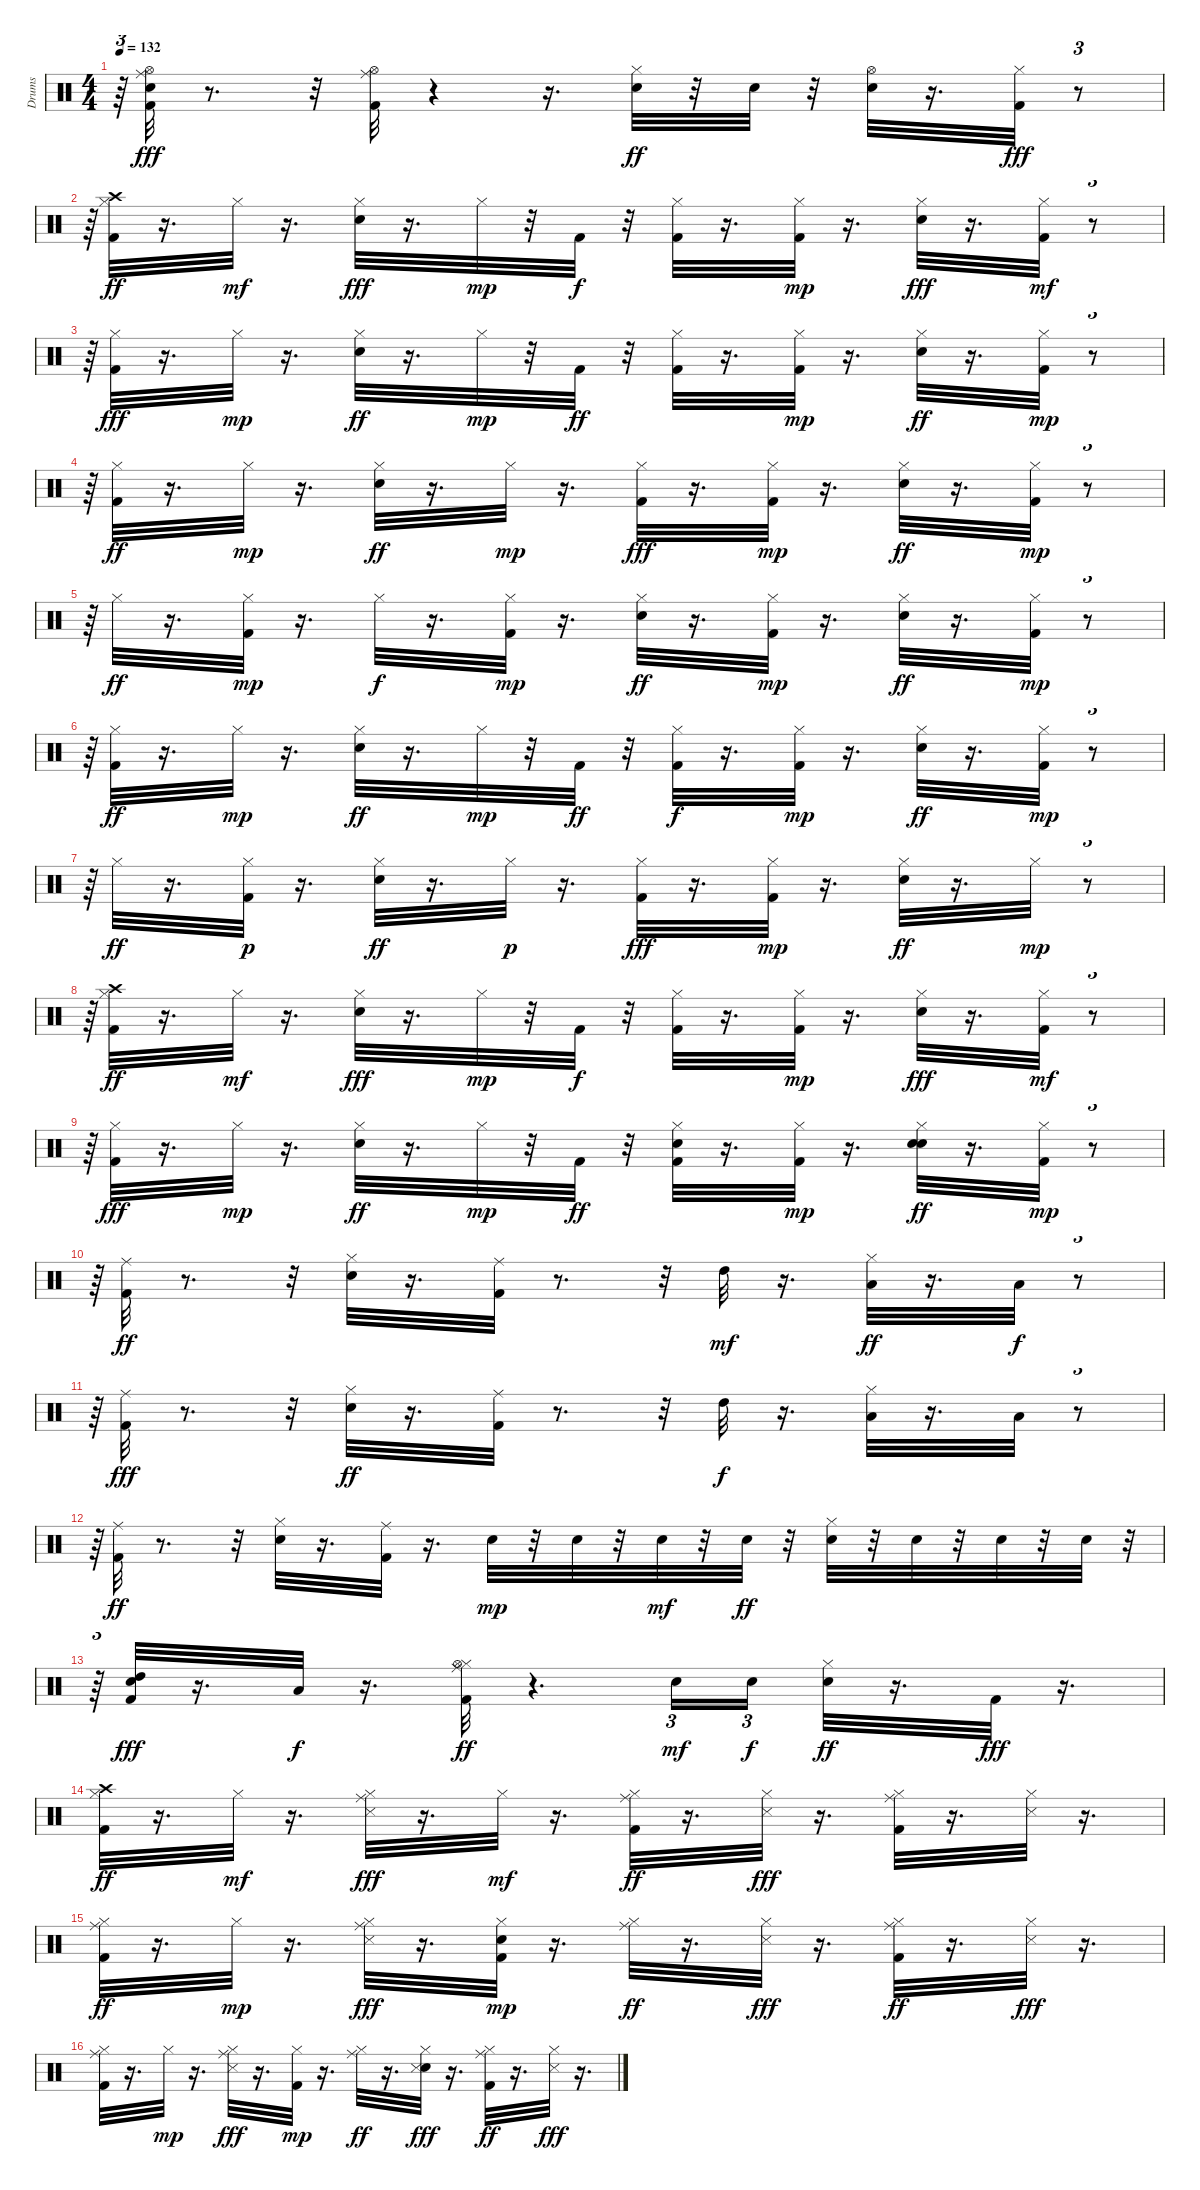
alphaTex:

\track ("Drums" "Drums") {instrument percussion}
\staff {score}
\articulation defaults
\ts (4 4)
\tempo 132
\clef neutral
\ks c
r.64{tu (3 2) dy ff} ("Kick (hit) 2" "Snare (hit) 2" "Ride (middle)" "Hi-Hat (open)").32{dy fff} r.8{d} r.32 ("Kick (hit) 2" "Ride (middle)" "Hi-Hat (open)").32 r.4 r.16{d} ("Snare (hit) 2" "Hi-Hat (closed)").32{dy ff} r.32 "Snare (hit) 2".32 r.32 ("Snare (hit) 2" "Hi-Hat (open)").32 r.16{d} ("Kick (hit) 2" "Hi-Hat (closed)").32{dy fff} r.8{tu (3 2)} |
r.64{tu (3 2)} ("Kick (hit) 2" "Hi-Hat (closed)" "Crash high (hit)").32{dy ff} r.16{d} "Hi-Hat (closed)".32{dy mf} r.16{d} ("Snare (hit) 2" "Hi-Hat (closed)").32{dy fff} r.16{d} "Hi-Hat (closed)".32{dy mp} r.32 "Kick (hit) 2".32{dy f} r.32 ("Kick (hit) 2" "Hi-Hat (closed)").32 r.16{d} ("Kick (hit) 2" "Hi-Hat (closed)").32{dy mp} r.16{d} ("Snare (hit) 2" "Hi-Hat (closed)").32{dy fff} r.16{d} ("Kick (hit) 2" "Hi-Hat (closed)").32{dy mf} r.8{tu (3 2)} |
r.64{tu (3 2)} ("Kick (hit) 2" "Hi-Hat (closed)").32{dy fff} r.16{d} "Hi-Hat (closed)".32{dy mp} r.16{d} ("Snare (hit) 2" "Hi-Hat (closed)").32{dy ff} r.16{d} "Hi-Hat (closed)".32{dy mp} r.32 "Kick (hit) 2".32{dy ff} r.32 ("Kick (hit) 2" "Hi-Hat (closed)").32 r.16{d} ("Kick (hit) 2" "Hi-Hat (closed)").32{dy mp} r.16{d} ("Snare (hit) 2" "Hi-Hat (closed)").32{dy ff} r.16{d} ("Kick (hit) 2" "Hi-Hat (closed)").32{dy mp} r.8{tu (3 2)} |
r.64{tu (3 2)} ("Kick (hit) 2" "Hi-Hat (closed)").32{dy ff} r.16{d} "Hi-Hat (closed)".32{dy mp} r.16{d} ("Snare (hit) 2" "Hi-Hat (closed)").32{dy ff} r.16{d} "Hi-Hat (closed)".32{dy mp} r.16{d} ("Kick (hit) 2" "Hi-Hat (closed)").32{dy fff} r.16{d} ("Kick (hit) 2" "Hi-Hat (closed)").32{dy mp} r.16{d} ("Snare (hit) 2" "Hi-Hat (closed)").32{dy ff} r.16{d} ("Kick (hit) 2" "Hi-Hat (closed)").32{dy mp} r.8{tu (3 2)} |
r.64{tu (3 2)} "Hi-Hat (closed)".32{dy ff} r.16{d} ("Kick (hit) 2" "Hi-Hat (closed)").32{dy mp} r.16{d} "Hi-Hat (closed)".32{dy f} r.16{d} ("Kick (hit) 2" "Hi-Hat (closed)").32{dy mp} r.16{d} ("Snare (hit) 2" "Hi-Hat (closed)").32{dy ff} r.16{d} ("Kick (hit) 2" "Hi-Hat (closed)").32{dy mp} r.16{d} ("Snare (hit) 2" "Hi-Hat (closed)").32{dy ff} r.16{d} ("Kick (hit) 2" "Hi-Hat (closed)").32{dy mp} r.8{tu (3 2)} |
r.64{tu (3 2)} ("Kick (hit) 2" "Hi-Hat (closed)").32{dy ff} r.16{d} "Hi-Hat (closed)".32{dy mp} r.16{d} ("Snare (hit) 2" "Hi-Hat (closed)").32{dy ff} r.16{d} "Hi-Hat (closed)".32{dy mp} r.32 "Kick (hit) 2".32{dy ff} r.32 ("Kick (hit) 2" "Hi-Hat (closed)").32{dy f} r.16{d} ("Kick (hit) 2" "Hi-Hat (closed)").32{dy mp} r.16{d} ("Snare (hit) 2" "Hi-Hat (closed)").32{dy ff} r.16{d} ("Kick (hit) 2" "Hi-Hat (closed)").32{dy mp} r.8{tu (3 2)} |
r.64{tu (3 2)} "Hi-Hat (closed)".32{dy ff} r.16{d} ("Kick (hit) 2" "Hi-Hat (closed)").32{dy p} r.16{d} ("Snare (hit) 2" "Hi-Hat (closed)").32{dy ff} r.16{d} "Hi-Hat (closed)".32{dy p} r.16{d} ("Kick (hit) 2" "Hi-Hat (closed)").32{dy fff} r.16{d} ("Kick (hit) 2" "Hi-Hat (closed)").32{dy mp} r.16{d} ("Snare (hit) 2" "Hi-Hat (closed)").32{dy ff} r.16{d} "Hi-Hat (closed)".32{dy mp} r.8{tu (3 2)} |
r.64{tu (3 2)} ("Kick (hit) 2" "Hi-Hat (closed)" "Crash high (hit)").32{dy ff} r.16{d} "Hi-Hat (closed)".32{dy mf} r.16{d} ("Snare (hit) 2" "Hi-Hat (closed)").32{dy fff} r.16{d} "Hi-Hat (closed)".32{dy mp} r.32 "Kick (hit) 2".32{dy f} r.32 ("Kick (hit) 2" "Hi-Hat (closed)").32 r.16{d} ("Kick (hit) 2" "Hi-Hat (closed)").32{dy mp} r.16{d} ("Snare (hit) 2" "Hi-Hat (closed)").32{dy fff} r.16{d} ("Kick (hit) 2" "Hi-Hat (closed)").32{dy mf} r.8{tu (3 2)} |
r.64{tu (3 2)} ("Kick (hit) 2" "Hi-Hat (closed)").32{dy fff} r.16{d} "Hi-Hat (closed)".32{dy mp} r.16{d} ("Snare (hit) 2" "Hi-Hat (closed)").32{dy ff} r.16{d} "Hi-Hat (closed)".32{dy mp} r.32 "Kick (hit) 2".32{dy ff} r.32 ("Kick (hit) 2" "Snare (hit) 2" "Hi-Hat (closed)").32 r.16{d} ("Kick (hit) 2" "Hi-Hat (closed)").32{dy mp} r.16{d} ("Snare (hit) 2" "Snare (hit) 2" "Hi-Hat (closed)").32{dy ff} r.16{d} ("Kick (hit) 2" "Hi-Hat (closed)").32{dy mp} r.8{tu (3 2)} |
r.64{tu (3 2)} ("Kick (hit) 2" "Ride (middle)").32{dy ff} r.8{d} r.32 ("Snare (hit) 2" "Hi-Hat (closed)").32 r.16{d} ("Kick (hit) 2" "Ride (middle)").32 r.8{d} r.32 "High Tom (hit)".32{dy mf} r.16{d} ("Hi-Hat (closed)" "Low Tom (hit)").32{dy ff} r.16{d} "Low Floor Tom (hit)".32{dy f} r.8{tu (3 2)} |
r.64{tu (3 2)} ("Kick (hit) 2" "Ride (middle)").32{dy fff} r.8{d} r.32 ("Snare (hit) 2" "Hi-Hat (closed)").32{dy ff} r.16{d} ("Kick (hit) 2" "Ride (middle)").32 r.8{d} r.32 "High Tom (hit)".32{dy f} r.16{d} ("Hi-Hat (closed)" "Low Tom (hit)").32 r.16{d} "Low Floor Tom (hit)".32 r.8{tu (3 2)} |
r.64{tu (3 2)} ("Kick (hit) 2" "Ride (middle)").32{dy ff} r.8{d} r.32 ("Snare (hit) 2" "Hi-Hat (closed)").32 r.16{d} ("Kick (hit) 2" "Ride (middle)").32 r.16{d} "Snare (hit) 2".32{dy mp} r.32 "Snare (hit) 2".32 r.32 "Snare (hit) 2".32{dy mf} r.32 "Snare (hit) 2".32{dy ff} r.32 ("Snare (hit) 2" "Hi-Hat (closed)").32 r.32 "Snare (hit) 2".32 r.32 "Snare (hit) 2".32 r.32 "Snare (hit) 2".32 r.32{tu (3 2)} |
r.64{tu (3 2)} ("Kick (hit) 2" "Snare (hit) 2" "High Tom (hit)").32{dy fff} r.16{d} "Low Floor Tom (hit)".32{dy f} r.16{d} ("Kick (hit) 2" "Hi-Hat (closed)" "Ride (middle)" "Hi-Hat (open)").32{dy ff} r.4{d} "Snare (hit) 2".16{tu (3 2) dy mf} "Snare (hit) 2".16{tu (3 2) dy f} ("Snare (hit) 2" "Hi-Hat (closed)").32{dy ff} r.16{d} "Kick (hit) 2".32{dy fff} r.16{d} |
("Kick (hit) 2" "Hi-Hat (closed)" "Crash high (hit)").32{dy ff} r.16{d} "Hi-Hat (closed)".32{dy mf} r.16{d} ("Hi-Hat (closed)" "Ride (middle)" "Snare (side stick) 3").32{dy fff} r.16{d} "Hi-Hat (closed)".32{dy mf} r.16{d} ("Kick (hit) 2" "Hi-Hat (closed)" "Ride (middle)").32{dy ff} r.16{d} ("Hi-Hat (closed)" "Snare (side stick) 3").32{dy fff} r.16{d} ("Kick (hit) 2" "Hi-Hat (closed)" "Ride (middle)").32 r.16{d} ("Hi-Hat (closed)" "Snare (side stick) 3").32 r.16{d} |
("Kick (hit) 2" "Hi-Hat (closed)" "Ride (middle)").32{dy ff} r.16{d} "Hi-Hat (closed)".32{dy mp} r.16{d} ("Hi-Hat (closed)" "Ride (middle)" "Snare (side stick) 3").32{dy fff} r.16{d} ("Kick (hit) 2" "Snare (hit) 2" "Hi-Hat (closed)").32{dy mp} r.16{d} ("Hi-Hat (closed)" "Ride (middle)").32{dy ff} r.16{d} ("Hi-Hat (closed)" "Snare (side stick) 3").32{dy fff} r.16{d} ("Kick (hit) 2" "Hi-Hat (closed)" "Ride (middle)").32{dy ff} r.16{d} ("Hi-Hat (closed)" "Snare (side stick) 3").32{dy fff} r.16{d} |
("Kick (hit) 2" "Hi-Hat (closed)" "Ride (middle)").32 r.16{d} "Hi-Hat (closed)".32{dy mp} r.16{d} ("Hi-Hat (closed)" "Ride (middle)" "Snare (side stick) 3").32{dy fff} r.16{d} ("Kick (hit) 2" "Hi-Hat (closed)").32{dy mp} r.16{d} ("Hi-Hat (closed)" "Ride (middle)").32{dy ff} r.16{d} ("Snare (hit) 2" "Hi-Hat (closed)" "Snare (side stick) 3").32{dy fff} r.16{d} ("Kick (hit) 2" "Hi-Hat (closed)" "Ride (middle)").32{dy ff} r.16{d} ("Hi-Hat (closed)" "Snare (side stick) 3").32{dy fff} r.16{d}
